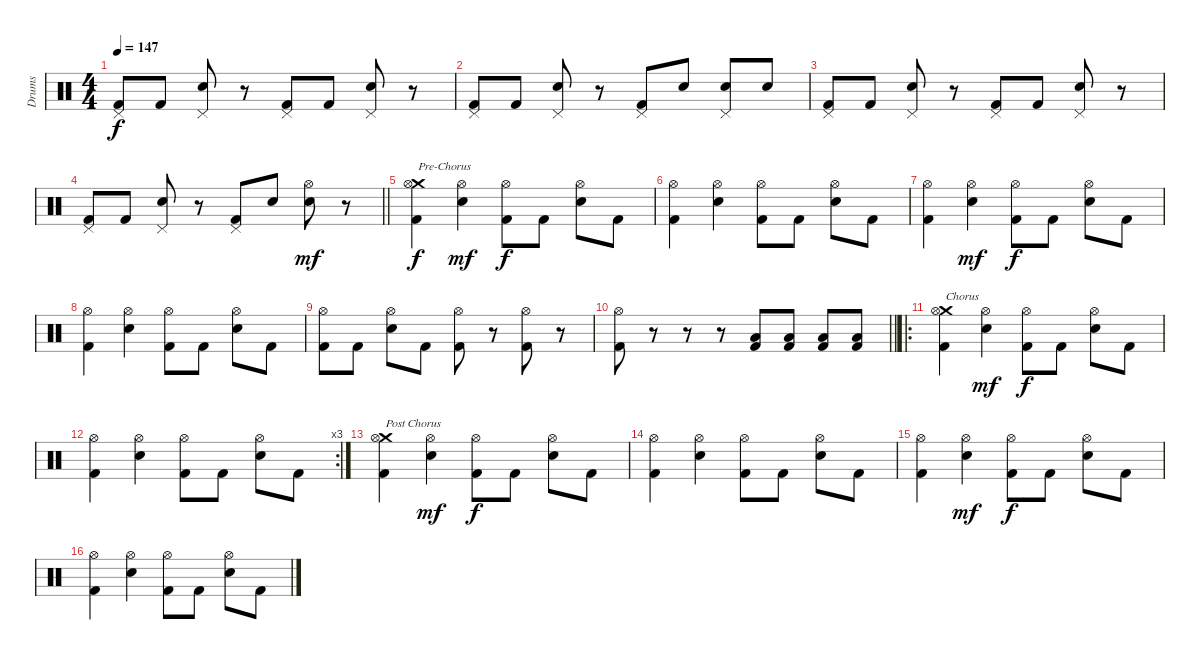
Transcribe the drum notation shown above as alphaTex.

\track ("Drums" "Drums") {instrument percussion}
\staff {score}
\articulation defaults
\ts (4 4)
\tempo 147
\clef neutral
\ks c
("Pedal Hi-Hat (hit)" "Kick (hit) 2").8{dy f} "Kick (hit) 2".8 ("Pedal Hi-Hat (hit)" "Electric Snare (hit)").8 r.8 ("Pedal Hi-Hat (hit)" "Kick (hit) 2").8 "Kick (hit) 2".8 ("Pedal Hi-Hat (hit)" "Electric Snare (hit)").8 r.8 |
("Pedal Hi-Hat (hit)" "Kick (hit) 2").8 "Kick (hit) 2".8 ("Pedal Hi-Hat (hit)" "Electric Snare (hit)").8 r.8 ("Pedal Hi-Hat (hit)" "Kick (hit) 2").8 "Electric Snare (hit)".8 ("Pedal Hi-Hat (hit)" "Electric Snare (hit)").8 "Electric Snare (hit)".8 |
("Pedal Hi-Hat (hit)" "Kick (hit) 2").8 "Kick (hit) 2".8 ("Pedal Hi-Hat (hit)" "Electric Snare (hit)").8 r.8 ("Pedal Hi-Hat (hit)" "Kick (hit) 2").8 "Kick (hit) 2".8 ("Pedal Hi-Hat (hit)" "Electric Snare (hit)").8 r.8 |
\barLineRight lightlight
("Pedal Hi-Hat (hit)" "Kick (hit) 2").8 "Kick (hit) 2".8 ("Pedal Hi-Hat (hit)" "Electric Snare (hit)").8 r.8 ("Pedal Hi-Hat (hit)" "Kick (hit) 2").8 "Electric Snare (hit)".8 ("Hi-Hat (open)" "Electric Snare (hit)").8{dy mf} r.8 |
("Crash medium (hit)" "Hi-Hat (open)" "Kick (hit) 2").4{txt "Pre-Chorus" dy f} ("Hi-Hat (open)" "Electric Snare (hit)").4{dy mf} ("Hi-Hat (open)" "Kick (hit) 2").8{dy f} "Kick (hit) 2".8 ("Hi-Hat (open)" "Electric Snare (hit)").8 "Kick (hit) 2".8 |
("Hi-Hat (open)" "Kick (hit) 2").4 ("Hi-Hat (open)" "Electric Snare (hit)").4 ("Hi-Hat (open)" "Kick (hit) 2").8 "Kick (hit) 2".8 ("Hi-Hat (open)" "Electric Snare (hit)").8 "Kick (hit) 2".8 |
("Hi-Hat (open)" "Kick (hit) 2").4 ("Hi-Hat (open)" "Electric Snare (hit)").4{dy mf} ("Hi-Hat (open)" "Kick (hit) 2").8{dy f} "Kick (hit) 2".8 ("Hi-Hat (open)" "Electric Snare (hit)").8 "Kick (hit) 2".8 |
("Hi-Hat (open)" "Kick (hit) 2").4 ("Hi-Hat (open)" "Electric Snare (hit)").4 ("Hi-Hat (open)" "Kick (hit) 2").8 "Kick (hit) 2".8 ("Hi-Hat (open)" "Electric Snare (hit)").8 "Kick (hit) 2".8 |
("Hi-Hat (open)" "Kick (hit) 2").8 "Kick (hit) 2".8 ("Hi-Hat (open)" "Electric Snare (hit)").8 "Kick (hit) 2".8 ("Hi-Hat (open)" "Kick (hit) 2").8 r.8 ("Hi-Hat (open)" "Kick (hit) 2").8 r.8 |
\barLineRight lightlight
("Hi-Hat (open)" "Kick (hit) 2").8 r.8 r.8 r.8 ("Low Floor Tom (hit)" "Kick (hit) 2").8 ("Low Floor Tom (hit)" "Kick (hit) 2").8 ("Low Floor Tom (hit)" "Kick (hit) 2").8 ("Low Floor Tom (hit)" "Kick (hit) 2").8 |
\ro
("Crash medium (hit)" "Hi-Hat (open)" "Kick (hit) 2").4{txt "Chorus"} ("Hi-Hat (open)" "Electric Snare (hit)").4{dy mf} ("Hi-Hat (open)" "Kick (hit) 2").8{dy f} "Kick (hit) 2".8 ("Hi-Hat (open)" "Electric Snare (hit)").8 "Kick (hit) 2".8 |
\rc 3
("Hi-Hat (open)" "Kick (hit) 2").4 ("Hi-Hat (open)" "Electric Snare (hit)").4 ("Hi-Hat (open)" "Kick (hit) 2").8 "Kick (hit) 2".8 ("Hi-Hat (open)" "Electric Snare (hit)").8 "Kick (hit) 2".8 |
("Crash medium (hit)" "Hi-Hat (open)" "Kick (hit) 2").4{txt "Post Chorus"} ("Hi-Hat (open)" "Electric Snare (hit)").4{dy mf} ("Hi-Hat (open)" "Kick (hit) 2").8{dy f} "Kick (hit) 2".8 ("Hi-Hat (open)" "Electric Snare (hit)").8 "Kick (hit) 2".8 |
("Hi-Hat (open)" "Kick (hit) 2").4 ("Hi-Hat (open)" "Electric Snare (hit)").4 ("Hi-Hat (open)" "Kick (hit) 2").8 "Kick (hit) 2".8 ("Hi-Hat (open)" "Electric Snare (hit)").8 "Kick (hit) 2".8 |
("Hi-Hat (open)" "Kick (hit) 2").4 ("Hi-Hat (open)" "Electric Snare (hit)").4{dy mf} ("Hi-Hat (open)" "Kick (hit) 2").8{dy f} "Kick (hit) 2".8 ("Hi-Hat (open)" "Electric Snare (hit)").8 "Kick (hit) 2".8 |
("Hi-Hat (open)" "Kick (hit) 2").4 ("Hi-Hat (open)" "Electric Snare (hit)").4 ("Hi-Hat (open)" "Kick (hit) 2").8 "Kick (hit) 2".8 ("Hi-Hat (open)" "Electric Snare (hit)").8 "Kick (hit) 2".8
